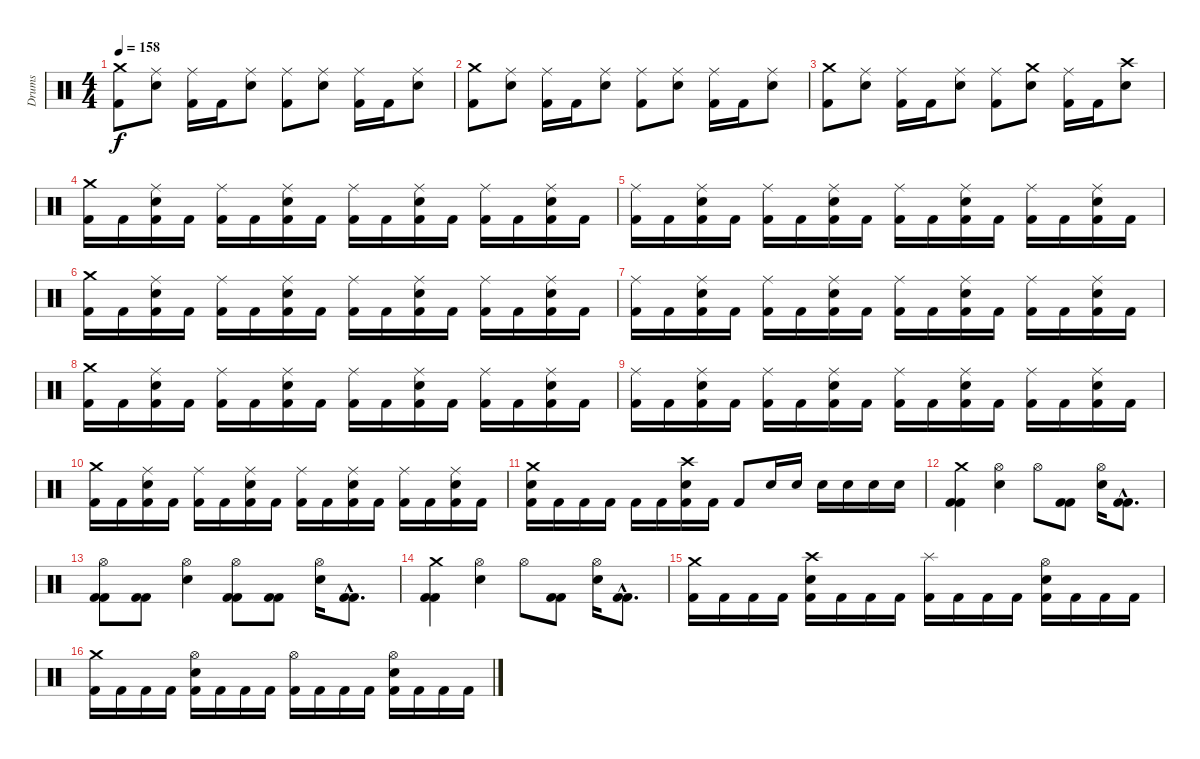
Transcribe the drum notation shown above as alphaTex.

\track ("Drums" "Drums") {instrument percussion}
\staff {score}
\articulation defaults
\ts (4 4)
\tempo 158
\clef neutral
\ks c
("Crash medium (hit)" "Kick (hit) 2").8{dy f} ("Ride (middle)" "Electric Snare (hit)").8 ("Ride (middle)" "Kick (hit) 2").16 "Kick (hit) 2".16 ("Ride (middle)" "Electric Snare (hit)").8 ("Ride (middle)" "Kick (hit) 2").8 ("Ride (middle)" "Electric Snare (hit)").8 ("Ride (middle)" "Kick (hit) 2").16 "Kick (hit) 2".16 ("Ride (middle)" "Electric Snare (hit)").8 |
("Crash medium (hit)" "Kick (hit) 2").8 ("Ride (middle)" "Electric Snare (hit)").8 ("Ride (middle)" "Kick (hit) 2").16 "Kick (hit) 2".16 ("Ride (middle)" "Electric Snare (hit)").8 ("Ride (middle)" "Kick (hit) 2").8 ("Ride (middle)" "Electric Snare (hit)").8 ("Ride (middle)" "Kick (hit) 2").16 "Kick (hit) 2".16 ("Ride (middle)" "Electric Snare (hit)").8 |
("Crash medium (hit)" "Kick (hit) 2").8 ("Ride (middle)" "Electric Snare (hit)").8 ("Ride (middle)" "Kick (hit) 2").16 "Kick (hit) 2".16 ("Ride (middle)" "Electric Snare (hit)").8 ("Ride (middle)" "Kick (hit) 2").8 ("Crash medium (hit)" "Electric Snare (hit)").8 ("Ride (middle)" "Kick (hit) 2").16 "Kick (hit) 2".16 ("Crash high (hit)" "Electric Snare (hit)").8 |
("Crash medium (hit)" "Kick (hit) 2").16 "Kick (hit) 2".16 ("Ride (middle)" "Electric Snare (hit)" "Kick (hit) 2").16 "Kick (hit) 2".16 ("Ride (middle)" "Kick (hit) 2").16 "Kick (hit) 2".16 ("Ride (middle)" "Electric Snare (hit)" "Kick (hit) 2").16 "Kick (hit) 2".16 ("Ride (middle)" "Kick (hit) 2").16 "Kick (hit) 2".16 ("Ride (middle)" "Electric Snare (hit)" "Kick (hit) 2").16 "Kick (hit) 2".16 ("Ride (middle)" "Kick (hit) 2").16 "Kick (hit) 2".16 ("Ride (middle)" "Electric Snare (hit)" "Kick (hit) 2").16 "Kick (hit) 2".16 |
("Ride (middle)" "Kick (hit) 2").16 "Kick (hit) 2".16 ("Ride (middle)" "Electric Snare (hit)" "Kick (hit) 2").16 "Kick (hit) 2".16 ("Ride (middle)" "Kick (hit) 2").16 "Kick (hit) 2".16 ("Ride (middle)" "Electric Snare (hit)" "Kick (hit) 2").16 "Kick (hit) 2".16 ("Ride (middle)" "Kick (hit) 2").16 "Kick (hit) 2".16 ("Ride (middle)" "Electric Snare (hit)" "Kick (hit) 2").16 "Kick (hit) 2".16 ("Ride (middle)" "Kick (hit) 2").16 "Kick (hit) 2".16 ("Ride (middle)" "Electric Snare (hit)" "Kick (hit) 2").16 "Kick (hit) 2".16 |
("Crash medium (hit)" "Kick (hit) 2").16 "Kick (hit) 2".16 ("Ride (middle)" "Electric Snare (hit)" "Kick (hit) 2").16 "Kick (hit) 2".16 ("Ride (middle)" "Kick (hit) 2").16 "Kick (hit) 2".16 ("Ride (middle)" "Electric Snare (hit)" "Kick (hit) 2").16 "Kick (hit) 2".16 ("Ride (middle)" "Kick (hit) 2").16 "Kick (hit) 2".16 ("Ride (middle)" "Electric Snare (hit)" "Kick (hit) 2").16 "Kick (hit) 2".16 ("Ride (middle)" "Kick (hit) 2").16 "Kick (hit) 2".16 ("Ride (middle)" "Electric Snare (hit)" "Kick (hit) 2").16 "Kick (hit) 2".16 |
("Ride (middle)" "Kick (hit) 2").16 "Kick (hit) 2".16 ("Ride (middle)" "Electric Snare (hit)" "Kick (hit) 2").16 "Kick (hit) 2".16 ("Ride (middle)" "Kick (hit) 2").16 "Kick (hit) 2".16 ("Ride (middle)" "Electric Snare (hit)" "Kick (hit) 2").16 "Kick (hit) 2".16 ("Ride (middle)" "Kick (hit) 2").16 "Kick (hit) 2".16 ("Ride (middle)" "Electric Snare (hit)" "Kick (hit) 2").16 "Kick (hit) 2".16 ("Ride (middle)" "Kick (hit) 2").16 "Kick (hit) 2".16 ("Ride (middle)" "Electric Snare (hit)" "Kick (hit) 2").16 "Kick (hit) 2".16 |
("Crash medium (hit)" "Kick (hit) 2").16 "Kick (hit) 2".16 ("Ride (middle)" "Electric Snare (hit)" "Kick (hit) 2").16 "Kick (hit) 2".16 ("Ride (middle)" "Kick (hit) 2").16 "Kick (hit) 2".16 ("Ride (middle)" "Electric Snare (hit)" "Kick (hit) 2").16 "Kick (hit) 2".16 ("Ride (middle)" "Kick (hit) 2").16 "Kick (hit) 2".16 ("Ride (middle)" "Electric Snare (hit)" "Kick (hit) 2").16 "Kick (hit) 2".16 ("Ride (middle)" "Kick (hit) 2").16 "Kick (hit) 2".16 ("Ride (middle)" "Electric Snare (hit)" "Kick (hit) 2").16 "Kick (hit) 2".16 |
("Ride (middle)" "Kick (hit) 2").16 "Kick (hit) 2".16 ("Ride (middle)" "Electric Snare (hit)" "Kick (hit) 2").16 "Kick (hit) 2".16 ("Ride (middle)" "Kick (hit) 2").16 "Kick (hit) 2".16 ("Ride (middle)" "Electric Snare (hit)" "Kick (hit) 2").16 "Kick (hit) 2".16 ("Ride (middle)" "Kick (hit) 2").16 "Kick (hit) 2".16 ("Ride (middle)" "Electric Snare (hit)" "Kick (hit) 2").16 "Kick (hit) 2".16 ("Ride (middle)" "Kick (hit) 2").16 "Kick (hit) 2".16 ("Ride (middle)" "Electric Snare (hit)" "Kick (hit) 2").16 "Kick (hit) 2".16 |
("Crash medium (hit)" "Kick (hit) 2").16 "Kick (hit) 2".16 ("Ride (middle)" "Electric Snare (hit)" "Kick (hit) 2").16 "Kick (hit) 2".16 ("Ride (middle)" "Kick (hit) 2").16 "Kick (hit) 2".16 ("Ride (middle)" "Electric Snare (hit)" "Kick (hit) 2").16 "Kick (hit) 2".16 ("Ride (middle)" "Kick (hit) 2").16 "Kick (hit) 2".16 ("Ride (middle)" "Electric Snare (hit)" "Kick (hit) 2").16 "Kick (hit) 2".16 ("Ride (middle)" "Kick (hit) 2").16 "Kick (hit) 2".16 ("Ride (middle)" "Electric Snare (hit)" "Kick (hit) 2").16 "Kick (hit) 2".16 |
("Crash medium (hit)" "Electric Snare (hit)" "Kick (hit) 2").16 "Kick (hit) 2".16 "Kick (hit) 2".16 "Kick (hit) 2".16 "Kick (hit) 2".16 "Kick (hit) 2".16 ("Crash high (hit)" "Electric Snare (hit)" "Kick (hit) 2").16 "Kick (hit) 2".16 "Kick (hit) 2".8 "Electric Snare (hit)".16 "Electric Snare (hit)".16 "Electric Snare (hit)".16 "Electric Snare (hit)".16 "Electric Snare (hit)".16 "Electric Snare (hit)".16 |
("Crash medium (hit)" "Kick (hit) 2" "Kick (hit) 2").4 ("Hi-Hat (open)" "Electric Snare (hit)").4 "Hi-Hat (open)".8 ("Kick (hit) 2" "Kick (hit) 2").8 ("Hi-Hat (open)" "Electric Snare (hit)").16 ("Kick (hit) 2"{hac} "Kick (hit) 2"{hac}).8{d} |
("Hi-Hat (open)" "Kick (hit) 2" "Kick (hit) 2").8 ("Kick (hit) 2" "Kick (hit) 2").8 ("Hi-Hat (open)" "Electric Snare (hit)").4 ("Hi-Hat (open)" "Kick (hit) 2" "Kick (hit) 2").8 ("Kick (hit) 2" "Kick (hit) 2").8 ("Hi-Hat (open)" "Electric Snare (hit)").16 ("Kick (hit) 2"{hac} "Kick (hit) 2"{hac}).8{d} |
("Crash medium (hit)" "Kick (hit) 2" "Kick (hit) 2").4 ("Hi-Hat (open)" "Electric Snare (hit)").4 "Hi-Hat (open)".8 ("Kick (hit) 2" "Kick (hit) 2").8 ("Hi-Hat (open)" "Electric Snare (hit)").16 ("Kick (hit) 2"{hac} "Kick (hit) 2"{hac}).8{d} |
("Crash medium (hit)" "Kick (hit) 2").16 "Kick (hit) 2".16 "Kick (hit) 2".16 "Kick (hit) 2".16 ("Crash high (hit)" "Electric Snare (hit)" "Kick (hit) 2").16 "Kick (hit) 2".16 "Kick (hit) 2".16 "Kick (hit) 2".16 ("Splash (hit)" "Kick (hit) 2").16 "Kick (hit) 2".16 "Kick (hit) 2".16 "Kick (hit) 2".16 ("Hi-Hat (open)" "Electric Snare (hit)" "Kick (hit) 2").16 "Kick (hit) 2".16 "Kick (hit) 2".16 "Kick (hit) 2".16 |
("Crash medium (hit)" "Kick (hit) 2").16 "Kick (hit) 2".16 "Kick (hit) 2".16 "Kick (hit) 2".16 ("Hi-Hat (open)" "Electric Snare (hit)" "Kick (hit) 2").16 "Kick (hit) 2".16 "Kick (hit) 2".16 "Kick (hit) 2".16 ("Hi-Hat (open)" "Kick (hit) 2").16 "Kick (hit) 2".16 "Kick (hit) 2".16 "Kick (hit) 2".16 ("Hi-Hat (open)" "Electric Snare (hit)" "Kick (hit) 2").16 "Kick (hit) 2".16 "Kick (hit) 2".16 "Kick (hit) 2".16
